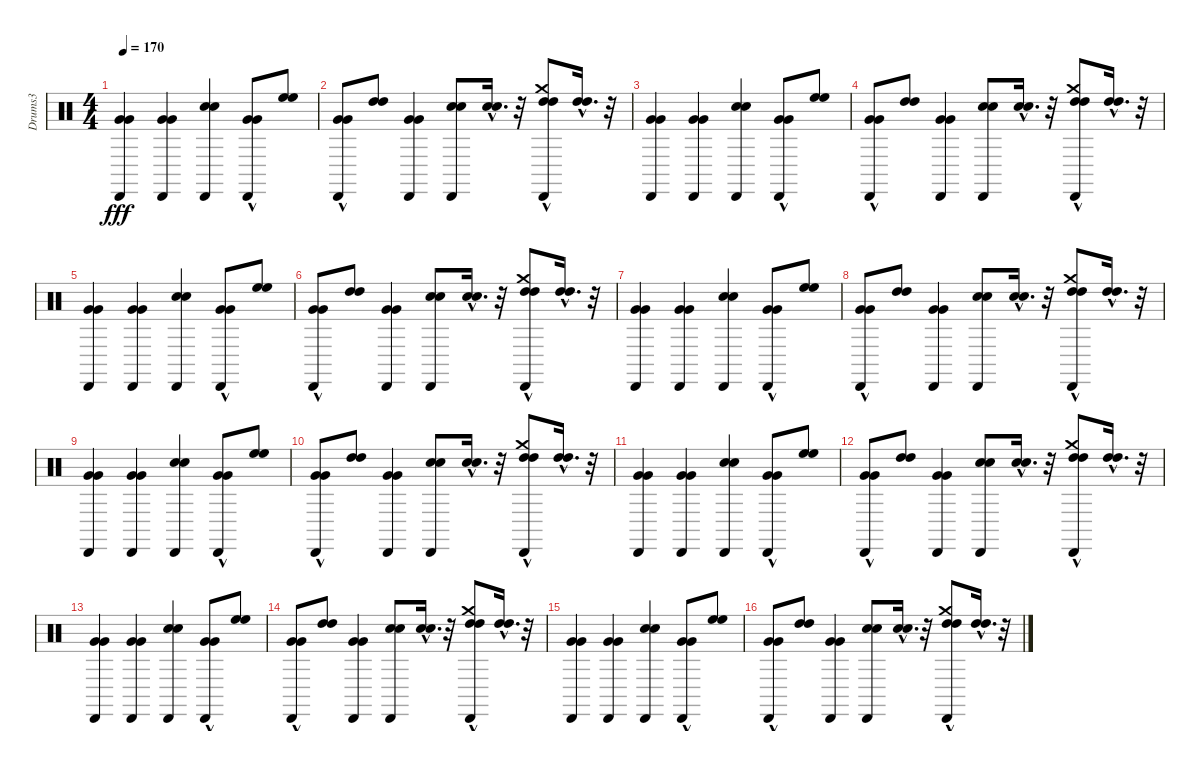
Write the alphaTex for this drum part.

\track ("Drums3" "Drums3") {instrument percussion}
\staff {score}
\articulation defaults
\ts (4 4)
\tempo 170
\clef neutral
\ks c
("Very Low Tom (hit)" "Very Low Tom (hit)" "Cabasa (hit)").4{dy fff} ("Very Low Tom (hit)" "Very Low Tom (hit)" "Cabasa (hit)").4 ("Electric Snare (hit)" "Electric Snare (hit)" "Cabasa (hit)").4 ("Very Low Tom (hit)"{hac} "Very Low Tom (hit)"{hac} "Cabasa (hit)").8 ("High Floor Tom (hit)" "High Floor Tom (hit)").8 |
("Very Low Tom (hit)"{hac} "Very Low Tom (hit)"{hac} "Cabasa (hit)").8 ("High Tom (hit)" "High Tom (hit)").8 ("Very Low Tom (hit)" "Very Low Tom (hit)" "Cabasa (hit)").4 ("Electric Snare (hit)" "Electric Snare (hit)" "Cabasa (hit)").8 ("Electric Snare (hit)"{hac} "Electric Snare (hit)"{hac}).16{d} r.32 ("High Tom (hit)"{hac} "High Tom (hit)"{hac} "Crash medium (hit)" "Cabasa (hit)").8 ("High Tom (hit)"{hac} "High Tom (hit)"{hac}).16{d} r.32 |
("Very Low Tom (hit)" "Very Low Tom (hit)" "Cabasa (hit)").4 ("Very Low Tom (hit)" "Very Low Tom (hit)" "Cabasa (hit)").4 ("Electric Snare (hit)" "Electric Snare (hit)" "Cabasa (hit)").4 ("Very Low Tom (hit)"{hac} "Very Low Tom (hit)"{hac} "Cabasa (hit)").8 ("High Floor Tom (hit)" "High Floor Tom (hit)").8 |
("Very Low Tom (hit)"{hac} "Very Low Tom (hit)"{hac} "Cabasa (hit)").8 ("High Tom (hit)" "High Tom (hit)").8 ("Very Low Tom (hit)" "Very Low Tom (hit)" "Cabasa (hit)").4 ("Electric Snare (hit)" "Electric Snare (hit)" "Cabasa (hit)").8 ("Electric Snare (hit)"{hac} "Electric Snare (hit)"{hac}).16{d} r.32 ("High Tom (hit)"{hac} "High Tom (hit)"{hac} "Crash medium (hit)" "Cabasa (hit)").8 ("High Tom (hit)"{hac} "High Tom (hit)"{hac}).16{d} r.32 |
("Very Low Tom (hit)" "Very Low Tom (hit)" "Cabasa (hit)").4 ("Very Low Tom (hit)" "Very Low Tom (hit)" "Cabasa (hit)").4 ("Electric Snare (hit)" "Electric Snare (hit)" "Cabasa (hit)").4 ("Very Low Tom (hit)"{hac} "Very Low Tom (hit)"{hac} "Cabasa (hit)").8 ("High Floor Tom (hit)" "High Floor Tom (hit)").8 |
("Very Low Tom (hit)"{hac} "Very Low Tom (hit)"{hac} "Cabasa (hit)").8 ("High Tom (hit)" "High Tom (hit)").8 ("Very Low Tom (hit)" "Very Low Tom (hit)" "Cabasa (hit)").4 ("Electric Snare (hit)" "Electric Snare (hit)" "Cabasa (hit)").8 ("Electric Snare (hit)"{hac} "Electric Snare (hit)"{hac}).16{d} r.32 ("High Tom (hit)"{hac} "High Tom (hit)"{hac} "Crash medium (hit)" "Cabasa (hit)").8 ("High Tom (hit)"{hac} "High Tom (hit)"{hac}).16{d} r.32 |
("Very Low Tom (hit)" "Very Low Tom (hit)" "Cabasa (hit)").4 ("Very Low Tom (hit)" "Very Low Tom (hit)" "Cabasa (hit)").4 ("Electric Snare (hit)" "Electric Snare (hit)" "Cabasa (hit)").4 ("Very Low Tom (hit)"{hac} "Very Low Tom (hit)"{hac} "Cabasa (hit)").8 ("High Floor Tom (hit)" "High Floor Tom (hit)").8 |
("Very Low Tom (hit)"{hac} "Very Low Tom (hit)"{hac} "Cabasa (hit)").8 ("High Tom (hit)" "High Tom (hit)").8 ("Very Low Tom (hit)" "Very Low Tom (hit)" "Cabasa (hit)").4 ("Electric Snare (hit)" "Electric Snare (hit)" "Cabasa (hit)").8 ("Electric Snare (hit)"{hac} "Electric Snare (hit)"{hac}).16{d} r.32 ("High Tom (hit)"{hac} "High Tom (hit)"{hac} "Crash medium (hit)" "Cabasa (hit)").8 ("High Tom (hit)"{hac} "High Tom (hit)"{hac}).16{d} r.32 |
("Very Low Tom (hit)" "Very Low Tom (hit)" "Cabasa (hit)").4 ("Very Low Tom (hit)" "Very Low Tom (hit)" "Cabasa (hit)").4 ("Electric Snare (hit)" "Electric Snare (hit)" "Cabasa (hit)").4 ("Very Low Tom (hit)"{hac} "Very Low Tom (hit)"{hac} "Cabasa (hit)").8 ("High Floor Tom (hit)" "High Floor Tom (hit)").8 |
("Very Low Tom (hit)"{hac} "Very Low Tom (hit)"{hac} "Cabasa (hit)").8 ("High Tom (hit)" "High Tom (hit)").8 ("Very Low Tom (hit)" "Very Low Tom (hit)" "Cabasa (hit)").4 ("Electric Snare (hit)" "Electric Snare (hit)" "Cabasa (hit)").8 ("Electric Snare (hit)"{hac} "Electric Snare (hit)"{hac}).16{d} r.32 ("High Tom (hit)"{hac} "High Tom (hit)"{hac} "Crash medium (hit)" "Cabasa (hit)").8 ("High Tom (hit)"{hac} "High Tom (hit)"{hac}).16{d} r.32 |
("Very Low Tom (hit)" "Very Low Tom (hit)" "Cabasa (hit)").4 ("Very Low Tom (hit)" "Very Low Tom (hit)" "Cabasa (hit)").4 ("Electric Snare (hit)" "Electric Snare (hit)" "Cabasa (hit)").4 ("Very Low Tom (hit)"{hac} "Very Low Tom (hit)"{hac} "Cabasa (hit)").8 ("High Floor Tom (hit)" "High Floor Tom (hit)").8 |
("Very Low Tom (hit)"{hac} "Very Low Tom (hit)"{hac} "Cabasa (hit)").8 ("High Tom (hit)" "High Tom (hit)").8 ("Very Low Tom (hit)" "Very Low Tom (hit)" "Cabasa (hit)").4 ("Electric Snare (hit)" "Electric Snare (hit)" "Cabasa (hit)").8 ("Electric Snare (hit)"{hac} "Electric Snare (hit)"{hac}).16{d} r.32 ("High Tom (hit)"{hac} "High Tom (hit)"{hac} "Crash medium (hit)" "Cabasa (hit)").8 ("High Tom (hit)"{hac} "High Tom (hit)"{hac}).16{d} r.32 |
("Very Low Tom (hit)" "Very Low Tom (hit)" "Cabasa (hit)").4 ("Very Low Tom (hit)" "Very Low Tom (hit)" "Cabasa (hit)").4 ("Electric Snare (hit)" "Electric Snare (hit)" "Cabasa (hit)").4 ("Very Low Tom (hit)"{hac} "Very Low Tom (hit)"{hac} "Cabasa (hit)").8 ("High Floor Tom (hit)" "High Floor Tom (hit)").8 |
("Very Low Tom (hit)"{hac} "Very Low Tom (hit)"{hac} "Cabasa (hit)").8 ("High Tom (hit)" "High Tom (hit)").8 ("Very Low Tom (hit)" "Very Low Tom (hit)" "Cabasa (hit)").4 ("Electric Snare (hit)" "Electric Snare (hit)" "Cabasa (hit)").8 ("Electric Snare (hit)"{hac} "Electric Snare (hit)"{hac}).16{d} r.32 ("High Tom (hit)"{hac} "High Tom (hit)"{hac} "Crash medium (hit)" "Cabasa (hit)").8 ("High Tom (hit)"{hac} "High Tom (hit)"{hac}).16{d} r.32 |
("Very Low Tom (hit)" "Very Low Tom (hit)" "Cabasa (hit)").4 ("Very Low Tom (hit)" "Very Low Tom (hit)" "Cabasa (hit)").4 ("Electric Snare (hit)" "Electric Snare (hit)" "Cabasa (hit)").4 ("Very Low Tom (hit)"{hac} "Very Low Tom (hit)"{hac} "Cabasa (hit)").8 ("High Floor Tom (hit)" "High Floor Tom (hit)").8 |
("Very Low Tom (hit)"{hac} "Very Low Tom (hit)"{hac} "Cabasa (hit)").8 ("High Tom (hit)" "High Tom (hit)").8 ("Very Low Tom (hit)" "Very Low Tom (hit)" "Cabasa (hit)").4 ("Electric Snare (hit)" "Electric Snare (hit)" "Cabasa (hit)").8 ("Electric Snare (hit)"{hac} "Electric Snare (hit)"{hac}).16{d} r.32 ("High Tom (hit)"{hac} "High Tom (hit)"{hac} "Crash medium (hit)" "Cabasa (hit)").8 ("High Tom (hit)"{hac} "High Tom (hit)"{hac}).16{d} r.32
